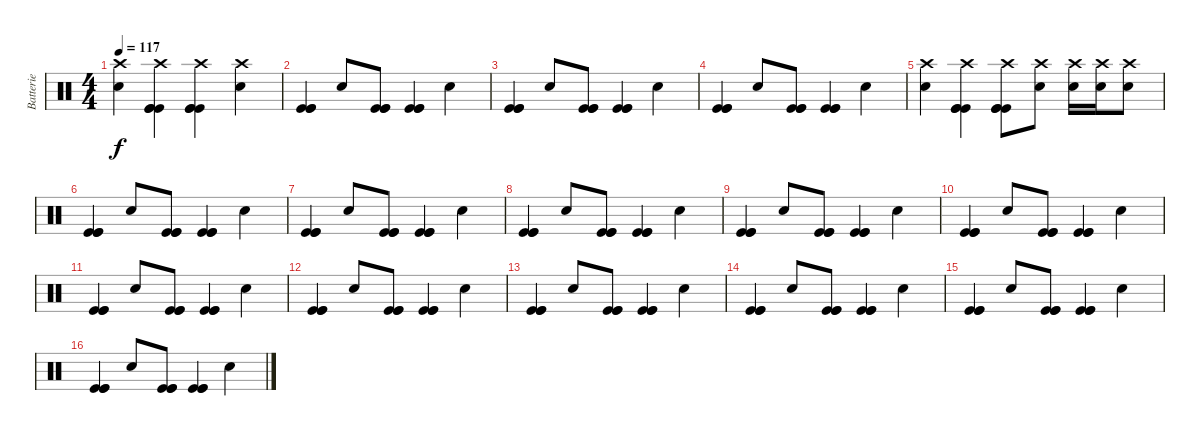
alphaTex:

\track ("Batterie" "Batterie") {instrument percussion}
\staff {score}
\articulation defaults
\ts (4 4)
\tempo 117
\clef neutral
\ks c
("Electric Snare (hit)" "Crash high (hit)").4{dy f} ("Kick (hit)" "Kick (hit)" "Kick (hit)" "Crash high (hit)").4 ("Kick (hit)" "Kick (hit)" "Kick (hit)" "Crash high (hit)").4 ("Electric Snare (hit)" "Crash high (hit)").4 |
("Kick (hit)" "Kick (hit)" "Kick (hit)").4 "Electric Snare (hit)".8 ("Kick (hit)" "Kick (hit)" "Kick (hit)").8 ("Kick (hit)" "Kick (hit)" "Kick (hit)").4 "Electric Snare (hit)".4 |
("Kick (hit)" "Kick (hit)" "Kick (hit)").4 "Electric Snare (hit)".8 ("Kick (hit)" "Kick (hit)" "Kick (hit)").8 ("Kick (hit)" "Kick (hit)" "Kick (hit)").4 "Electric Snare (hit)".4 |
("Kick (hit)" "Kick (hit)" "Kick (hit)").4 "Electric Snare (hit)".8 ("Kick (hit)" "Kick (hit)" "Kick (hit)").8 ("Kick (hit)" "Kick (hit)" "Kick (hit)").4 "Electric Snare (hit)".4 |
("Electric Snare (hit)" "Crash high (hit)").4 ("Kick (hit)" "Kick (hit)" "Kick (hit)" "Crash high (hit)").4 ("Kick (hit)" "Kick (hit)" "Kick (hit)" "Crash high (hit)").8 ("Electric Snare (hit)" "Crash high (hit)").8 ("Electric Snare (hit)" "Crash high (hit)").16 ("Electric Snare (hit)" "Crash high (hit)").16 ("Electric Snare (hit)" "Crash high (hit)").8 |
("Kick (hit)" "Kick (hit)" "Kick (hit)").4 "Electric Snare (hit)".8 ("Kick (hit)" "Kick (hit)" "Kick (hit)").8 ("Kick (hit)" "Kick (hit)" "Kick (hit)").4 "Electric Snare (hit)".4 |
("Kick (hit)" "Kick (hit)" "Kick (hit)").4 "Electric Snare (hit)".8 ("Kick (hit)" "Kick (hit)" "Kick (hit)").8 ("Kick (hit)" "Kick (hit)" "Kick (hit)").4 "Electric Snare (hit)".4 |
("Kick (hit)" "Kick (hit)" "Kick (hit)").4 "Electric Snare (hit)".8 ("Kick (hit)" "Kick (hit)" "Kick (hit)").8 ("Kick (hit)" "Kick (hit)" "Kick (hit)").4 "Electric Snare (hit)".4 |
("Kick (hit)" "Kick (hit)" "Kick (hit)").4 "Electric Snare (hit)".8 ("Kick (hit)" "Kick (hit)" "Kick (hit)").8 ("Kick (hit)" "Kick (hit)" "Kick (hit)").4 "Electric Snare (hit)".4 |
("Kick (hit)" "Kick (hit)" "Kick (hit)").4 "Electric Snare (hit)".8 ("Kick (hit)" "Kick (hit)" "Kick (hit)").8 ("Kick (hit)" "Kick (hit)" "Kick (hit)").4 "Electric Snare (hit)".4 |
("Kick (hit)" "Kick (hit)" "Kick (hit)").4 "Electric Snare (hit)".8 ("Kick (hit)" "Kick (hit)" "Kick (hit)").8 ("Kick (hit)" "Kick (hit)" "Kick (hit)").4 "Electric Snare (hit)".4 |
("Kick (hit)" "Kick (hit)" "Kick (hit)").4 "Electric Snare (hit)".8 ("Kick (hit)" "Kick (hit)" "Kick (hit)").8 ("Kick (hit)" "Kick (hit)" "Kick (hit)").4 "Electric Snare (hit)".4 |
("Kick (hit)" "Kick (hit)" "Kick (hit)").4 "Electric Snare (hit)".8 ("Kick (hit)" "Kick (hit)" "Kick (hit)").8 ("Kick (hit)" "Kick (hit)" "Kick (hit)").4 "Electric Snare (hit)".4 |
("Kick (hit)" "Kick (hit)" "Kick (hit)").4 "Electric Snare (hit)".8 ("Kick (hit)" "Kick (hit)" "Kick (hit)").8 ("Kick (hit)" "Kick (hit)" "Kick (hit)").4 "Electric Snare (hit)".4 |
("Kick (hit)" "Kick (hit)" "Kick (hit)").4 "Electric Snare (hit)".8 ("Kick (hit)" "Kick (hit)" "Kick (hit)").8 ("Kick (hit)" "Kick (hit)" "Kick (hit)").4 "Electric Snare (hit)".4 |
("Kick (hit)" "Kick (hit)" "Kick (hit)").4 "Electric Snare (hit)".8 ("Kick (hit)" "Kick (hit)" "Kick (hit)").8 ("Kick (hit)" "Kick (hit)" "Kick (hit)").4 "Electric Snare (hit)".4
